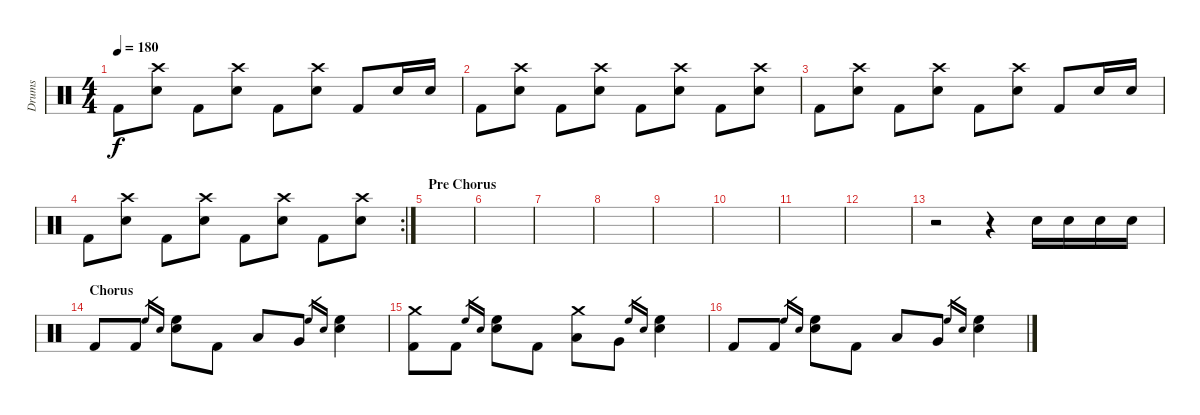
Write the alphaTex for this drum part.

\track ("Drums" "Drums") {instrument percussion}
\staff {score}
\articulation defaults
\ts (4 4)
\tempo 180
\clef neutral
\ks c "Kick (hit) 2".8{dy f}
("Crash high (hit)" "Snare (hit) 2").8 "Kick (hit) 2".8 ("Crash high (hit)" "Snare (hit) 2").8 "Kick (hit) 2".8 ("Crash high (hit)" "Snare (hit) 2").8 "Kick (hit) 2".8 "Snare (hit) 2".16 "Snare (hit) 2".16 |
"Kick (hit) 2".8 ("Crash high (hit)" "Snare (hit) 2").8 "Kick (hit) 2".8 ("Crash high (hit)" "Snare (hit) 2").8 "Kick (hit) 2".8 ("Crash high (hit)" "Snare (hit) 2").8 "Kick (hit) 2".8 ("Crash high (hit)" "Snare (hit) 2").8 |
"Kick (hit) 2".8 ("Crash high (hit)" "Snare (hit) 2").8 "Kick (hit) 2".8 ("Crash high (hit)" "Snare (hit) 2").8 "Kick (hit) 2".8 ("Crash high (hit)" "Snare (hit) 2").8 "Kick (hit) 2".8 "Snare (hit) 2".16 "Snare (hit) 2".16 |
\rc 2 "Kick (hit) 2".8
("Crash high (hit)" "Snare (hit) 2").8 "Kick (hit) 2".8 ("Crash high (hit)" "Snare (hit) 2").8 "Kick (hit) 2".8 ("Crash high (hit)" "Snare (hit) 2").8 "Kick (hit) 2".8 ("Crash high (hit)" "Snare (hit) 2").8 |
\section ("" "Pre Chorus")
|
|
|
|
|
|
|
|
r.2 r.4 "Snare (hit) 2".16 "Snare (hit) 2".16 "Snare (hit) 2".16 "Snare (hit) 2".16 |
\section ("" "Chorus")
"Kick (hit) 2".8 "Kick (hit) 2".8 "High Floor Tom (hit)".16{gr} "Electric Snare (hit)".16{gr} ("High Floor Tom (hit)" "Electric Snare (hit)").8 "Kick (hit) 2".8 "Low Tom (hit)".8 "Very Low Tom (hit)".8 "High Floor Tom (hit)".16{gr} "Electric Snare (hit)".16{gr} ("High Floor Tom (hit)" "Electric Snare (hit)").4 |
("Crash medium (hit)" "Kick (hit) 2").8 "Kick (hit) 2".8 "High Floor Tom (hit)".16{gr} "Electric Snare (hit)".16{gr} ("High Floor Tom (hit)" "Electric Snare (hit)").8 "Kick (hit) 2".8 ("Crash medium (hit)" "Low Tom (hit)").8 "Very Low Tom (hit)".8 "High Floor Tom (hit)".16{gr} "Electric Snare (hit)".16{gr} ("High Floor Tom (hit)" "Electric Snare (hit)").4 |
"Kick (hit) 2".8 "Kick (hit) 2".8 "High Floor Tom (hit)".16{gr} "Electric Snare (hit)".16{gr} ("High Floor Tom (hit)" "Electric Snare (hit)").8 "Kick (hit) 2".8 "Low Tom (hit)".8 "Very Low Tom (hit)".8 "High Floor Tom (hit)".16{gr} "Electric Snare (hit)".16{gr} ("High Floor Tom (hit)" "Electric Snare (hit)").4
